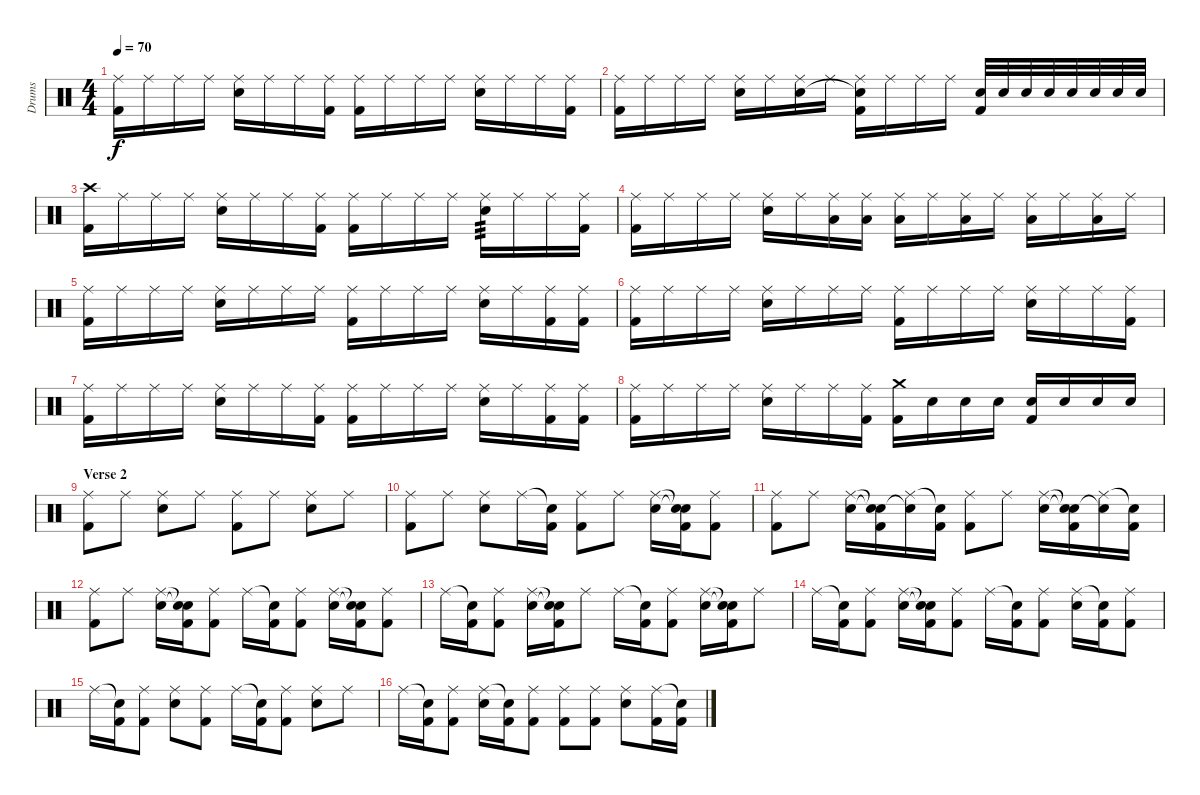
\track ("Drums" "Drums") {instrument percussion}
\staff {score}
\articulation defaults
\ts (4 4)
\tempo 70
\clef neutral
\ks c
("Ride (middle)" "Kick (hit) 2").16{dy f} "Ride (middle)".16 "Ride (middle)".16 "Ride (middle)".16 ("Ride (middle)" "Snare (hit) 2").16 "Ride (middle)".16 "Ride (middle)".16 ("Ride (middle)" "Kick (hit) 2").16 ("Ride (middle)" "Kick (hit) 2").16 "Ride (middle)".16 "Ride (middle)".16 "Ride (middle)".16 ("Ride (middle)" "Snare (hit) 2").16 "Ride (middle)".16 "Ride (middle)".16 ("Ride (middle)" "Kick (hit) 2").16 |
("Ride (middle)" "Kick (hit) 2").16 "Ride (middle)".16 "Ride (middle)".16 "Ride (middle)".16 ("Ride (middle)" "Snare (hit) 2").16 "Ride (middle)".16 ("Ride (middle)" "Snare (hit) 2"{tr (38 64)}).16 "Ride (middle)".16 ("Ride (middle)" "Snare (hit) 2"{t} "Kick (hit) 2").16 "Ride (middle)".16 "Ride (middle)".16 "Ride (middle)".16 ("Snare (hit) 2" "Kick (hit) 2").32 "Snare (hit) 2".32 "Snare (hit) 2".32 "Snare (hit) 2".32 "Snare (hit) 2".32 "Snare (hit) 2".32 "Snare (hit) 2".32 "Snare (hit) 2".32 |
("Crash high (hit)" "Kick (hit) 2").16 "Ride (middle)".16 "Ride (middle)".16 "Ride (middle)".16 ("Ride (middle)" "Snare (hit) 2").16 "Ride (middle)".16 "Ride (middle)".16 ("Ride (middle)" "Kick (hit) 2").16 ("Ride (middle)" "Kick (hit) 2").16 "Ride (middle)".16 "Ride (middle)".16 "Ride (middle)".16 ("Ride (middle)" "Snare (hit) 2").16{tp 3} "Ride (middle)".16 "Ride (middle)".16 ("Ride (middle)" "Kick (hit) 2").16 |
("Ride (middle)" "Kick (hit) 2").16 "Ride (middle)".16 "Ride (middle)".16 "Ride (middle)".16 ("Ride (middle)" "Snare (hit) 2").16 "Ride (middle)".16 ("Ride (middle)" "Low Tom (hit)").16 ("Ride (middle)" "Low Tom (hit)").16 ("Ride (middle)" "Low Tom (hit)").16 "Ride (middle)".16 ("Ride (middle)" "Low Tom (hit)").16 "Ride (middle)".16 ("Ride (middle)" "Low Tom (hit)").16 "Ride (middle)".16 ("Ride (middle)" "Low Tom (hit)").16 "Ride (middle)".16 |
("Ride (middle)" "Kick (hit) 2").16 "Ride (middle)".16 "Ride (middle)".16 "Ride (middle)".16 ("Ride (middle)" "Snare (hit) 2").16 "Ride (middle)".16 "Ride (middle)".16 "Ride (middle)".16 ("Ride (middle)" "Kick (hit) 2").16 "Ride (middle)".16 "Ride (middle)".16 "Ride (middle)".16 ("Ride (middle)" "Snare (hit) 2").16 "Ride (middle)".16 ("Ride (middle)" "Kick (hit) 2").16 ("Ride (middle)" "Kick (hit) 2").16 |
("Ride (middle)" "Kick (hit) 2").16 "Ride (middle)".16 "Ride (middle)".16 "Ride (middle)".16 ("Ride (middle)" "Snare (hit) 2").16 "Ride (middle)".16 "Ride (middle)".16 "Ride (middle)".16 ("Ride (middle)" "Kick (hit) 2").16 "Ride (middle)".16 "Ride (middle)".16 "Ride (middle)".16 ("Ride (middle)" "Snare (hit) 2").16 "Ride (middle)".16 "Ride (middle)".16 ("Ride (middle)" "Kick (hit) 2").16 |
("Ride (middle)" "Kick (hit) 2").16 "Ride (middle)".16 "Ride (middle)".16 "Ride (middle)".16 ("Ride (middle)" "Snare (hit) 2").16 "Ride (middle)".16 "Ride (middle)".16 ("Ride (middle)" "Kick (hit) 2").16 ("Ride (middle)" "Kick (hit) 2").16 "Ride (middle)".16 "Ride (middle)".16 "Ride (middle)".16 ("Ride (middle)" "Snare (hit) 2").16 "Ride (middle)".16 ("Ride (middle)" "Kick (hit) 2").16 ("Ride (middle)" "Kick (hit) 2").16 |
("Ride (middle)" "Kick (hit) 2").16 "Ride (middle)".16 "Ride (middle)".16 "Ride (middle)".16 ("Ride (middle)" "Snare (hit) 2").16 "Ride (middle)".16 "Ride (middle)".16 ("Ride (middle)" "Kick (hit) 2").16 ("Crash medium (hit)" "Kick (hit) 2").16 "Snare (hit) 2".16 "Snare (hit) 2".16 "Snare (hit) 2".16 ("Snare (hit) 2" "Kick (hit) 2").16 "Snare (hit) 2".16 "Snare (hit) 2".16 "Snare (hit) 2".16 |
\section ("" "Verse 2")
("Ride (middle)" "Kick (hit) 2").8 "Ride (middle)".8 ("Ride (middle)" "Snare (hit) 2").8 "Ride (middle)".8 ("Ride (middle)" "Kick (hit) 2").8 "Ride (middle)".8 ("Ride (middle)" "Snare (hit) 2").8 "Ride (middle)".8 |
("Ride (middle)" "Kick (hit) 2").8 "Ride (middle)".8 ("Ride (middle)" "Snare (hit) 2").8 "Ride (middle)".16 ("Snare (hit)"{t} "Kick (hit) 2").16 ("Ride (middle)" "Kick (hit) 2").8 "Ride (middle)".8 ("Ride (middle)" "Snare (hit) 2").16 ("Snare (hit)"{t} "Snare (hit)"{t} "Kick (hit) 2").16 ("Ride (middle)" "Kick (hit) 2").8 |
("Ride (middle)" "Kick (hit) 2").8 "Ride (middle)".8 ("Ride (middle)" "Snare (hit) 2").16 ("Snare (hit)"{t} "Snare (hit)"{t} "Kick (hit) 2").16 ("Ride (middle)" "Snare (hit)"{t}).16 ("Snare (hit)"{t} "Kick (hit) 2").16 ("Ride (middle)" "Kick (hit) 2").8 "Ride (middle)".8 ("Ride (middle)" "Snare (hit) 2").16 ("Snare (hit)"{t} "Snare (hit)"{t} "Kick (hit) 2").16 ("Ride (middle)" "Snare (hit)"{t}).16 ("Snare (hit)"{t} "Kick (hit) 2").16 |
("Ride (middle)" "Kick (hit) 2").8 "Ride (middle)".8 ("Ride (middle)" "Snare (hit) 2").16 ("Snare (hit)"{t} "Snare (hit)"{t} "Kick (hit) 2").16 ("Ride (middle)" "Kick (hit) 2").8 "Ride (middle)".16 ("Snare (hit)"{t} "Kick (hit) 2").16 ("Ride (middle)" "Kick (hit) 2").8 ("Ride (middle)" "Snare (hit) 2").16 ("Snare (hit)"{t} "Snare (hit)"{t} "Kick (hit) 2").16 ("Ride (middle)" "Kick (hit) 2").8 |
"Ride (middle)".16 ("Snare (hit)"{t} "Kick (hit) 2").16 ("Ride (middle)" "Kick (hit) 2").8 ("Ride (middle)" "Snare (hit) 2").16 ("Snare (hit)"{t} "Snare (hit)"{t} "Kick (hit) 2").16 "Ride (middle)".8 "Ride (middle)".16 ("Snare (hit)"{t} "Kick (hit) 2").16 ("Ride (middle)" "Kick (hit) 2").8 ("Ride (middle)" "Snare (hit) 2").16 ("Snare (hit)"{t} "Snare (hit)"{t} "Kick (hit) 2").16 "Ride (middle)".8 |
"Ride (middle)".16 ("Snare (hit)"{t} "Kick (hit) 2").16 ("Ride (middle)" "Kick (hit) 2").8 ("Ride (middle)" "Snare (hit) 2").16 ("Snare (hit)"{t} "Snare (hit)"{t} "Kick (hit) 2").16 ("Ride (middle)" "Kick (hit) 2").8 "Ride (middle)".16 ("Snare (hit)"{t} "Kick (hit) 2").16 ("Ride (middle)" "Kick (hit) 2").8 ("Ride (middle)" "Snare (hit) 2").16 ("Snare (hit)"{t} "Kick (hit) 2").16 ("Ride (middle)" "Kick (hit) 2").8 |
"Ride (middle)".16 ("Snare (hit)"{t} "Kick (hit) 2").16 ("Ride (middle)" "Kick (hit) 2").8 ("Ride (middle)" "Snare (hit) 2").8 ("Ride (middle)" "Kick (hit) 2").8 "Ride (middle)".16 ("Snare (hit)"{t} "Kick (hit) 2").16 ("Ride (middle)" "Kick (hit) 2").8 ("Ride (middle)" "Snare (hit) 2").8 "Ride (middle)".8 |
"Ride (middle)".16 ("Snare (hit)"{t} "Kick (hit) 2").16 ("Ride (middle)" "Kick (hit) 2").8 ("Ride (middle)" "Snare (hit) 2").16 ("Snare (hit)"{t} "Kick (hit) 2").16 ("Ride (middle)" "Kick (hit) 2").8 ("Ride (middle)" "Kick (hit) 2").8 ("Ride (middle)" "Kick (hit) 2").8 ("Ride (middle)" "Snare (hit) 2").8 ("Ride (middle)" "Kick (hit) 2").16 ("Snare (hit)"{t} "Kick (hit) 2").16
